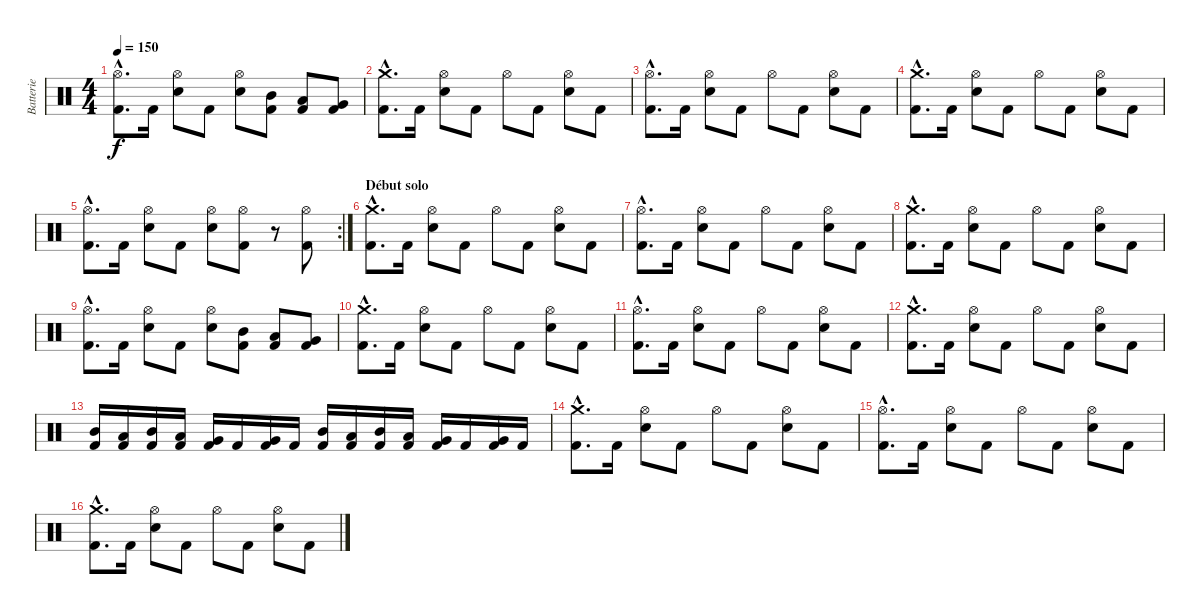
\track ("Batterie" "Batterie") {instrument percussion}
\staff {score}
\articulation defaults
\ts (4 4)
\tempo 150
\clef neutral
\ks c
("Hi-Hat (open)"{hac} "Kick (hit) 2"{hac}).8{d dy f} "Kick (hit) 2".16 ("Hi-Hat (open)" "Electric Snare (hit)").8 "Kick (hit) 2".8 ("Hi-Hat (open)" "Electric Snare (hit)").8 ("Mid Tom (hit)" "Kick (hit) 2").8 ("Low Tom (hit)" "Kick (hit) 2").8 ("Very Low Tom (hit)" "Kick (hit) 2").8 |
("Crash medium (hit)"{hac} "Kick (hit) 2"{hac}).8{d} "Kick (hit) 2".16 ("Hi-Hat (open)" "Electric Snare (hit)").8 "Kick (hit) 2".8 "Hi-Hat (open)".8 "Kick (hit) 2".8 ("Hi-Hat (open)" "Electric Snare (hit)").8 "Kick (hit) 2".8 |
("Hi-Hat (open)"{hac} "Kick (hit) 2"{hac}).8{d} "Kick (hit) 2".16 ("Hi-Hat (open)" "Electric Snare (hit)").8 "Kick (hit) 2".8 "Hi-Hat (open)".8 "Kick (hit) 2".8 ("Hi-Hat (open)" "Electric Snare (hit)").8 "Kick (hit) 2".8 |
("Crash medium (hit)"{hac} "Kick (hit) 2"{hac}).8{d} "Kick (hit) 2".16 ("Hi-Hat (open)" "Electric Snare (hit)").8 "Kick (hit) 2".8 "Hi-Hat (open)".8 "Kick (hit) 2".8 ("Hi-Hat (open)" "Electric Snare (hit)").8 "Kick (hit) 2".8 |
\rc 2
("Hi-Hat (open)"{hac} "Kick (hit) 2"{hac}).8{d} "Kick (hit) 2".16 ("Hi-Hat (open)" "Electric Snare (hit)").8 "Kick (hit) 2".8 ("Hi-Hat (open)" "Electric Snare (hit)").8 ("Hi-Hat (open)" "Kick (hit) 2").8 r.8 ("Hi-Hat (open)" "Kick (hit) 2").8 |
\section ("" "Début solo")
("Crash medium (hit)"{hac} "Kick (hit) 2"{hac}).8{d} "Kick (hit) 2".16 ("Hi-Hat (open)" "Electric Snare (hit)").8 "Kick (hit) 2".8 "Hi-Hat (open)".8 "Kick (hit) 2".8 ("Hi-Hat (open)" "Electric Snare (hit)").8 "Kick (hit) 2".8 |
("Hi-Hat (open)"{hac} "Kick (hit) 2"{hac}).8{d} "Kick (hit) 2".16 ("Hi-Hat (open)" "Electric Snare (hit)").8 "Kick (hit) 2".8 "Hi-Hat (open)".8 "Kick (hit) 2".8 ("Hi-Hat (open)" "Electric Snare (hit)").8 "Kick (hit) 2".8 |
("Crash medium (hit)"{hac} "Kick (hit) 2"{hac}).8{d} "Kick (hit) 2".16 ("Hi-Hat (open)" "Electric Snare (hit)").8 "Kick (hit) 2".8 "Hi-Hat (open)".8 "Kick (hit) 2".8 ("Hi-Hat (open)" "Electric Snare (hit)").8 "Kick (hit) 2".8 |
("Hi-Hat (open)"{hac} "Kick (hit) 2"{hac}).8{d} "Kick (hit) 2".16 ("Hi-Hat (open)" "Electric Snare (hit)").8 "Kick (hit) 2".8 ("Hi-Hat (open)" "Electric Snare (hit)").8 ("Mid Tom (hit)" "Kick (hit) 2").8 ("Low Tom (hit)" "Kick (hit) 2").8 ("Very Low Tom (hit)" "Kick (hit) 2").8 |
("Crash medium (hit)"{hac} "Kick (hit) 2"{hac}).8{d} "Kick (hit) 2".16 ("Hi-Hat (open)" "Electric Snare (hit)").8 "Kick (hit) 2".8 "Hi-Hat (open)".8 "Kick (hit) 2".8 ("Hi-Hat (open)" "Electric Snare (hit)").8 "Kick (hit) 2".8 |
("Hi-Hat (open)"{hac} "Kick (hit) 2"{hac}).8{d} "Kick (hit) 2".16 ("Hi-Hat (open)" "Electric Snare (hit)").8 "Kick (hit) 2".8 "Hi-Hat (open)".8 "Kick (hit) 2".8 ("Hi-Hat (open)" "Electric Snare (hit)").8 "Kick (hit) 2".8 |
("Crash medium (hit)"{hac} "Kick (hit) 2"{hac}).8{d} "Kick (hit) 2".16 ("Hi-Hat (open)" "Electric Snare (hit)").8 "Kick (hit) 2".8 "Hi-Hat (open)".8 "Kick (hit) 2".8 ("Hi-Hat (open)" "Electric Snare (hit)").8 "Kick (hit) 2".8 |
("Mid Tom (hit)" "Kick (hit) 2").16 ("Low Tom (hit)" "Kick (hit) 2").16 ("Mid Tom (hit)" "Kick (hit) 2").16 ("Low Tom (hit)" "Kick (hit) 2").16 ("Very Low Tom (hit)" "Kick (hit) 2").16 "Kick (hit) 2".16 ("Very Low Tom (hit)" "Kick (hit) 2").16 "Kick (hit) 2".16 ("Mid Tom (hit)" "Kick (hit) 2").16 ("Low Tom (hit)" "Kick (hit) 2").16 ("Mid Tom (hit)" "Kick (hit) 2").16 ("Low Tom (hit)" "Kick (hit) 2").16 ("Very Low Tom (hit)" "Kick (hit) 2").16 "Kick (hit) 2".16 ("Very Low Tom (hit)" "Kick (hit) 2").16 "Kick (hit) 2".16 |
("Crash medium (hit)"{hac} "Kick (hit) 2"{hac}).8{d} "Kick (hit) 2".16 ("Hi-Hat (open)" "Electric Snare (hit)").8 "Kick (hit) 2".8 "Hi-Hat (open)".8 "Kick (hit) 2".8 ("Hi-Hat (open)" "Electric Snare (hit)").8 "Kick (hit) 2".8 |
("Hi-Hat (open)"{hac} "Kick (hit) 2"{hac}).8{d} "Kick (hit) 2".16 ("Hi-Hat (open)" "Electric Snare (hit)").8 "Kick (hit) 2".8 "Hi-Hat (open)".8 "Kick (hit) 2".8 ("Hi-Hat (open)" "Electric Snare (hit)").8 "Kick (hit) 2".8 |
("Crash medium (hit)"{hac} "Kick (hit) 2"{hac}).8{d} "Kick (hit) 2".16 ("Hi-Hat (open)" "Electric Snare (hit)").8 "Kick (hit) 2".8 "Hi-Hat (open)".8 "Kick (hit) 2".8 ("Hi-Hat (open)" "Electric Snare (hit)").8 "Kick (hit) 2".8
